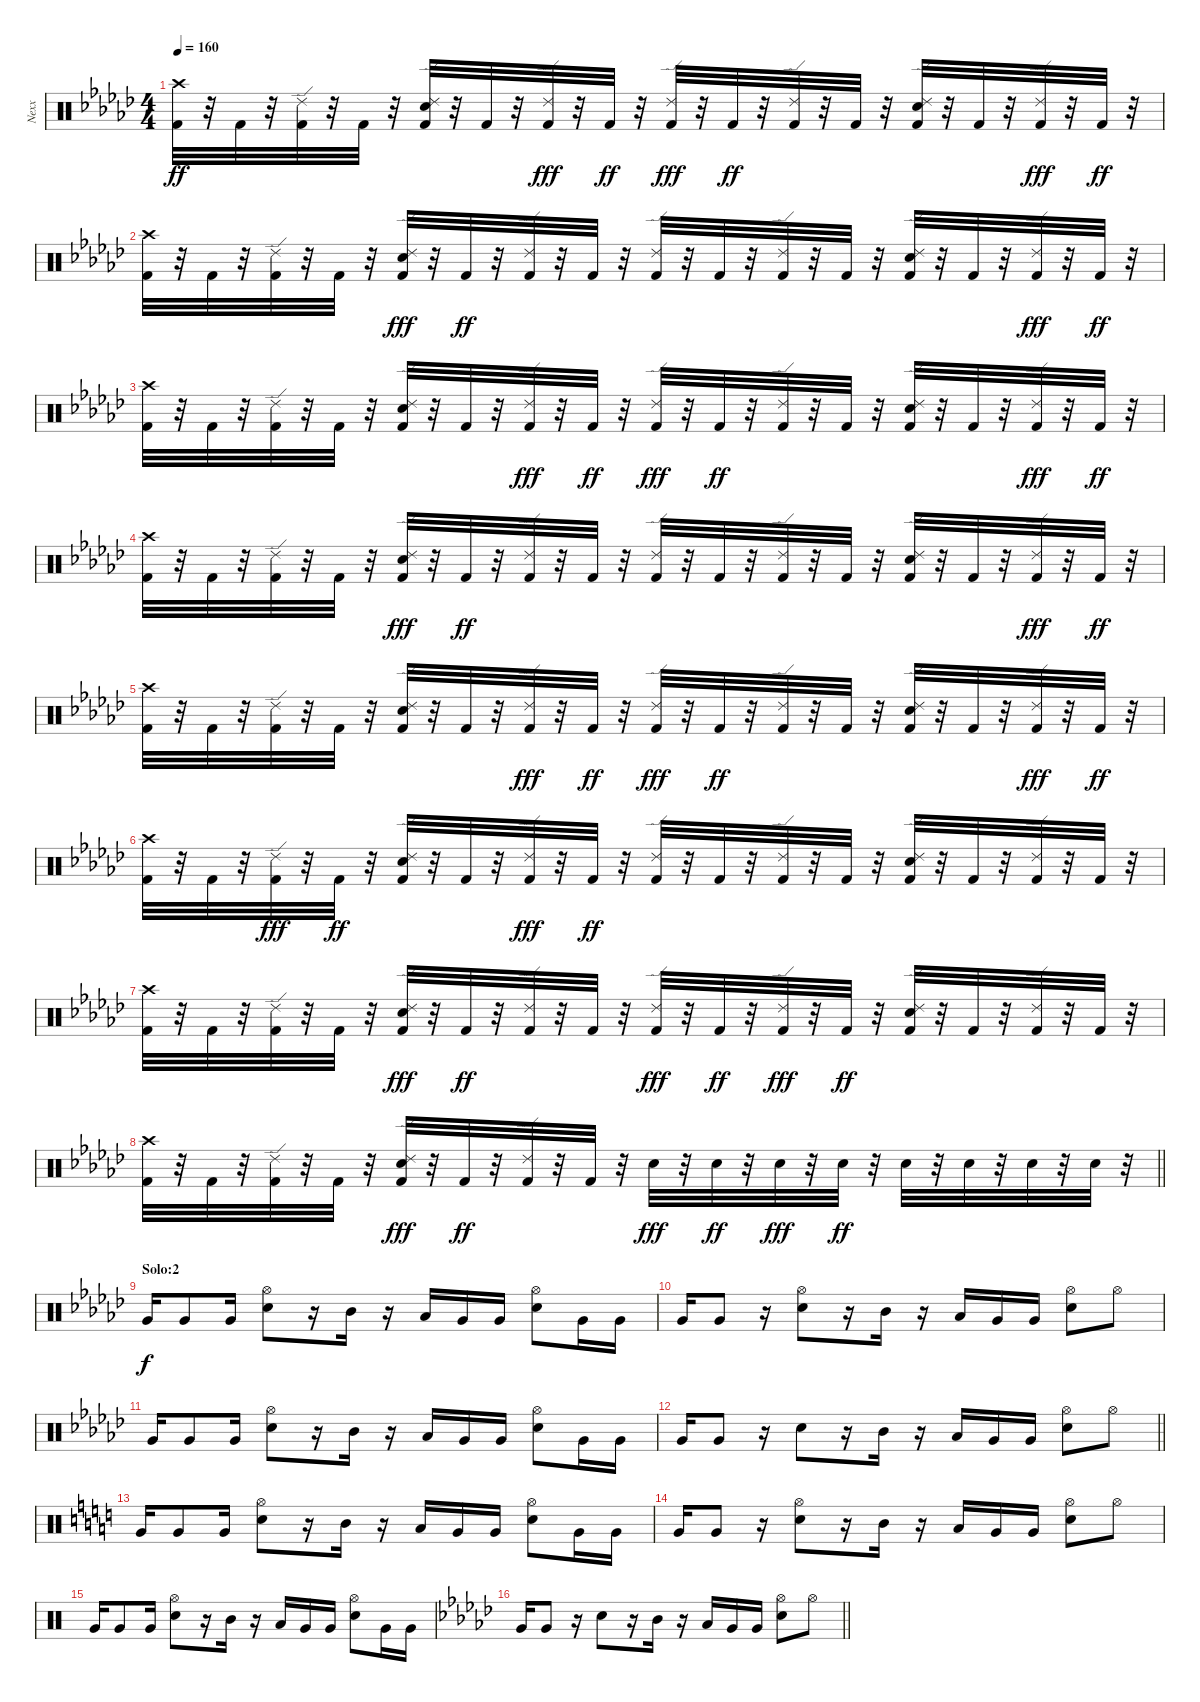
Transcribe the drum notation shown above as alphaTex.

\track ("Nexx" "Nexx") {instrument percussion}
\staff {score}
\articulation defaults
\ts (4 4)
\tempo 160
\clef neutral
\ks ebminor
("Crash high (hit)" "Kick (hit) 2").32{dy ff} r.32 "Kick (hit) 2".32 r.32 ("Ride (edge) 2" "Kick (hit) 2").32 r.32 "Kick (hit) 2".32 r.32 ("Kick (hit) 2" "Ride (edge) 2" "Electric Snare (hit)").32 r.32 "Kick (hit) 2".32 r.32 ("Kick (hit) 2" "Ride (edge) 2").32{dy fff} r.32 "Kick (hit) 2".32{dy ff} r.32 ("Kick (hit) 2" "Ride (edge) 2").32{dy fff} r.32 "Kick (hit) 2".32{dy ff} r.32 ("Ride (edge) 2" "Kick (hit) 2").32 r.32 "Kick (hit) 2".32 r.32 ("Electric Snare (hit)" "Ride (edge) 2" "Kick (hit) 2").32 r.32 "Kick (hit) 2".32 r.32 ("Kick (hit) 2" "Ride (edge) 2").32{dy fff} r.32 "Kick (hit) 2".32{dy ff} r.32 |
("Kick (hit) 2" "Crash high (hit)").32 r.32 "Kick (hit) 2".32 r.32 ("Ride (edge) 2" "Kick (hit) 2").32 r.32 "Kick (hit) 2".32 r.32 ("Electric Snare (hit)" "Kick (hit) 2" "Ride (edge) 2").32{dy fff} r.32 "Kick (hit) 2".32{dy ff} r.32 ("Ride (edge) 2" "Kick (hit) 2").32 r.32 "Kick (hit) 2".32 r.32 ("Ride (edge) 2" "Kick (hit) 2").32 r.32 "Kick (hit) 2".32 r.32 ("Ride (edge) 2" "Kick (hit) 2").32 r.32 "Kick (hit) 2".32 r.32 ("Kick (hit) 2" "Ride (edge) 2" "Electric Snare (hit)").32 r.32 "Kick (hit) 2".32 r.32 ("Kick (hit) 2" "Ride (edge) 2").32{dy fff} r.32 "Kick (hit) 2".32{dy ff} r.32 |
("Crash high (hit)" "Kick (hit) 2").32 r.32 "Kick (hit) 2".32 r.32 ("Ride (edge) 2" "Kick (hit) 2").32 r.32 "Kick (hit) 2".32 r.32 ("Kick (hit) 2" "Ride (edge) 2" "Electric Snare (hit)").32 r.32 "Kick (hit) 2".32 r.32 ("Kick (hit) 2" "Ride (edge) 2").32{dy fff} r.32 "Kick (hit) 2".32{dy ff} r.32 ("Kick (hit) 2" "Ride (edge) 2").32{dy fff} r.32 "Kick (hit) 2".32{dy ff} r.32 ("Ride (edge) 2" "Kick (hit) 2").32 r.32 "Kick (hit) 2".32 r.32 ("Electric Snare (hit)" "Ride (edge) 2" "Kick (hit) 2").32 r.32 "Kick (hit) 2".32 r.32 ("Kick (hit) 2" "Ride (edge) 2").32{dy fff} r.32 "Kick (hit) 2".32{dy ff} r.32 |
("Kick (hit) 2" "Crash high (hit)").32 r.32 "Kick (hit) 2".32 r.32 ("Ride (edge) 2" "Kick (hit) 2").32 r.32 "Kick (hit) 2".32 r.32 ("Electric Snare (hit)" "Kick (hit) 2" "Ride (edge) 2").32{dy fff} r.32 "Kick (hit) 2".32{dy ff} r.32 ("Ride (edge) 2" "Kick (hit) 2").32 r.32 "Kick (hit) 2".32 r.32 ("Ride (edge) 2" "Kick (hit) 2").32 r.32 "Kick (hit) 2".32 r.32 ("Ride (edge) 2" "Kick (hit) 2").32 r.32 "Kick (hit) 2".32 r.32 ("Kick (hit) 2" "Ride (edge) 2" "Electric Snare (hit)").32 r.32 "Kick (hit) 2".32 r.32 ("Kick (hit) 2" "Ride (edge) 2").32{dy fff} r.32 "Kick (hit) 2".32{dy ff} r.32 |
("Crash high (hit)" "Kick (hit) 2").32{volume 13} r.32 "Kick (hit) 2".32 r.32 ("Ride (edge) 2" "Kick (hit) 2").32 r.32 "Kick (hit) 2".32 r.32 ("Kick (hit) 2" "Ride (edge) 2" "Electric Snare (hit)").32 r.32 "Kick (hit) 2".32 r.32 ("Kick (hit) 2" "Ride (edge) 2").32{dy fff} r.32 "Kick (hit) 2".32{dy ff} r.32 ("Kick (hit) 2" "Ride (edge) 2").32{dy fff} r.32 "Kick (hit) 2".32{dy ff} r.32 ("Ride (edge) 2" "Kick (hit) 2").32 r.32 "Kick (hit) 2".32 r.32 ("Electric Snare (hit)" "Ride (edge) 2" "Kick (hit) 2").32 r.32 "Kick (hit) 2".32 r.32 ("Kick (hit) 2" "Ride (edge) 2").32{dy fff} r.32 "Kick (hit) 2".32{dy ff} r.32 |
("Kick (hit) 2" "Crash high (hit)").32 r.32 "Kick (hit) 2".32 r.32 ("Kick (hit) 2" "Ride (edge) 2").32{dy fff} r.32 "Kick (hit) 2".32{dy ff} r.32 ("Electric Snare (hit)" "Ride (edge) 2" "Kick (hit) 2").32 r.32 "Kick (hit) 2".32 r.32 ("Kick (hit) 2" "Ride (edge) 2").32{dy fff} r.32 "Kick (hit) 2".32{dy ff} r.32 ("Ride (edge) 2" "Kick (hit) 2").32 r.32 "Kick (hit) 2".32 r.32 ("Ride (edge) 2" "Kick (hit) 2").32 r.32 "Kick (hit) 2".32 r.32 ("Kick (hit) 2" "Ride (edge) 2" "Electric Snare (hit)").32 r.32 "Kick (hit) 2".32 r.32 ("Ride (edge) 2" "Kick (hit) 2").32 r.32 "Kick (hit) 2".32 r.32 |
("Crash high (hit)" "Kick (hit) 2").32 r.32 "Kick (hit) 2".32 r.32 ("Ride (edge) 2" "Kick (hit) 2").32 r.32 "Kick (hit) 2".32 r.32 ("Kick (hit) 2" "Electric Snare (hit)" "Ride (edge) 2").32{dy fff} r.32 "Kick (hit) 2".32{dy ff} r.32 ("Ride (edge) 2" "Kick (hit) 2").32 r.32 "Kick (hit) 2".32 r.32 ("Kick (hit) 2" "Ride (edge) 2").32{dy fff} r.32 "Kick (hit) 2".32{dy ff} r.32 ("Kick (hit) 2" "Ride (edge) 2").32{dy fff} r.32 "Kick (hit) 2".32{dy ff} r.32 ("Ride (edge) 2" "Electric Snare (hit)" "Kick (hit) 2").32 r.32 "Kick (hit) 2".32 r.32 ("Ride (edge) 2" "Kick (hit) 2").32 r.32 "Kick (hit) 2".32 r.32 |
\barLineRight lightlight
("Kick (hit) 2" "Crash high (hit)").32 r.32 "Kick (hit) 2".32 r.32 ("Ride (edge) 2" "Kick (hit) 2").32 r.32 "Kick (hit) 2".32 r.32 ("Electric Snare (hit)" "Kick (hit) 2" "Ride (edge) 2").32{dy fff} r.32 "Kick (hit) 2".32{dy ff} r.32 ("Ride (edge) 2" "Kick (hit) 2").32 r.32 "Kick (hit) 2".32 r.32 "Electric Snare (hit)".32{dy fff} r.32 "Electric Snare (hit)".32{dy ff} r.32 "Electric Snare (hit)".32{dy fff} r.32 "Electric Snare (hit)".32{dy ff} r.32 "Electric Snare (hit)".32 r.32 "Electric Snare (hit)".32 r.32 "Electric Snare (hit)".32 r.32 "Electric Snare (hit)".32 r.32 |
\section ("" "Solo:2")
"Very Low Tom (hit)".16{dy f} "Very Low Tom (hit)".8 "Very Low Tom (hit)".16 ("Hi-Hat (open)" "Snare (hit) 2").8 r.16 "Mid Tom (hit)".16 r.16 "Low Tom (hit)".16 "Very Low Tom (hit)".16 "Very Low Tom (hit)".16 ("Hi-Hat (open)" "Snare (hit) 2").8 "Very Low Tom (hit)".16 "Very Low Tom (hit)".16 |
"Very Low Tom (hit)".16 "Very Low Tom (hit)".8 r.16 ("Hi-Hat (open)" "Snare (hit) 2").8 r.16 "Mid Tom (hit)".16 r.16 "Low Tom (hit)".16 "Very Low Tom (hit)".16 "Very Low Tom (hit)".16 ("Hi-Hat (open)" "Snare (hit) 2").8 "Hi-Hat (open)".8 |
"Very Low Tom (hit)".16 "Very Low Tom (hit)".8 "Very Low Tom (hit)".16 ("Hi-Hat (open)" "Snare (hit) 2").8 r.16 "Mid Tom (hit)".16 r.16 "Low Tom (hit)".16 "Very Low Tom (hit)".16 "Very Low Tom (hit)".16 ("Hi-Hat (open)" "Snare (hit) 2").8 "Very Low Tom (hit)".16 "Very Low Tom (hit)".16 |
\barLineRight lightlight "Very Low Tom (hit)".16 "Very Low Tom (hit)".8
r.16 "Snare (hit) 2".8 r.16 "Mid Tom (hit)".16 r.16 "Low Tom (hit)".16 "Very Low Tom (hit)".16 "Very Low Tom (hit)".16 ("Hi-Hat (open)" "Snare (hit) 2").8 "Hi-Hat (open)".8 |
\ks c "Very Low Tom (hit)".16 "Very Low Tom (hit)".8 "Very Low Tom (hit)".16
("Hi-Hat (open)" "Snare (hit) 2").8 r.16 "Mid Tom (hit)".16 r.16 "Low Tom (hit)".16 "Very Low Tom (hit)".16 "Very Low Tom (hit)".16 ("Hi-Hat (open)" "Snare (hit) 2").8 "Very Low Tom (hit)".16 "Very Low Tom (hit)".16 |
"Very Low Tom (hit)".16 "Very Low Tom (hit)".8 r.16 ("Hi-Hat (open)" "Snare (hit) 2").8 r.16 "Mid Tom (hit)".16 r.16 "Low Tom (hit)".16 "Very Low Tom (hit)".16 "Very Low Tom (hit)".16 ("Hi-Hat (open)" "Snare (hit) 2").8 "Hi-Hat (open)".8 |
"Very Low Tom (hit)".16 "Very Low Tom (hit)".8 "Very Low Tom (hit)".16 ("Hi-Hat (open)" "Snare (hit) 2").8 r.16 "Mid Tom (hit)".16 r.16 "Low Tom (hit)".16 "Very Low Tom (hit)".16 "Very Low Tom (hit)".16 ("Hi-Hat (open)" "Snare (hit) 2").8 "Very Low Tom (hit)".16 "Very Low Tom (hit)".16 |
\barLineRight lightlight
\ks ebminor "Very Low Tom (hit)".16 "Very Low Tom (hit)".8
r.16 "Snare (hit) 2".8 r.16 "Mid Tom (hit)".16 r.16 "Low Tom (hit)".16 "Very Low Tom (hit)".16 "Very Low Tom (hit)".16 ("Hi-Hat (open)" "Snare (hit) 2").8 "Hi-Hat (open)".8
